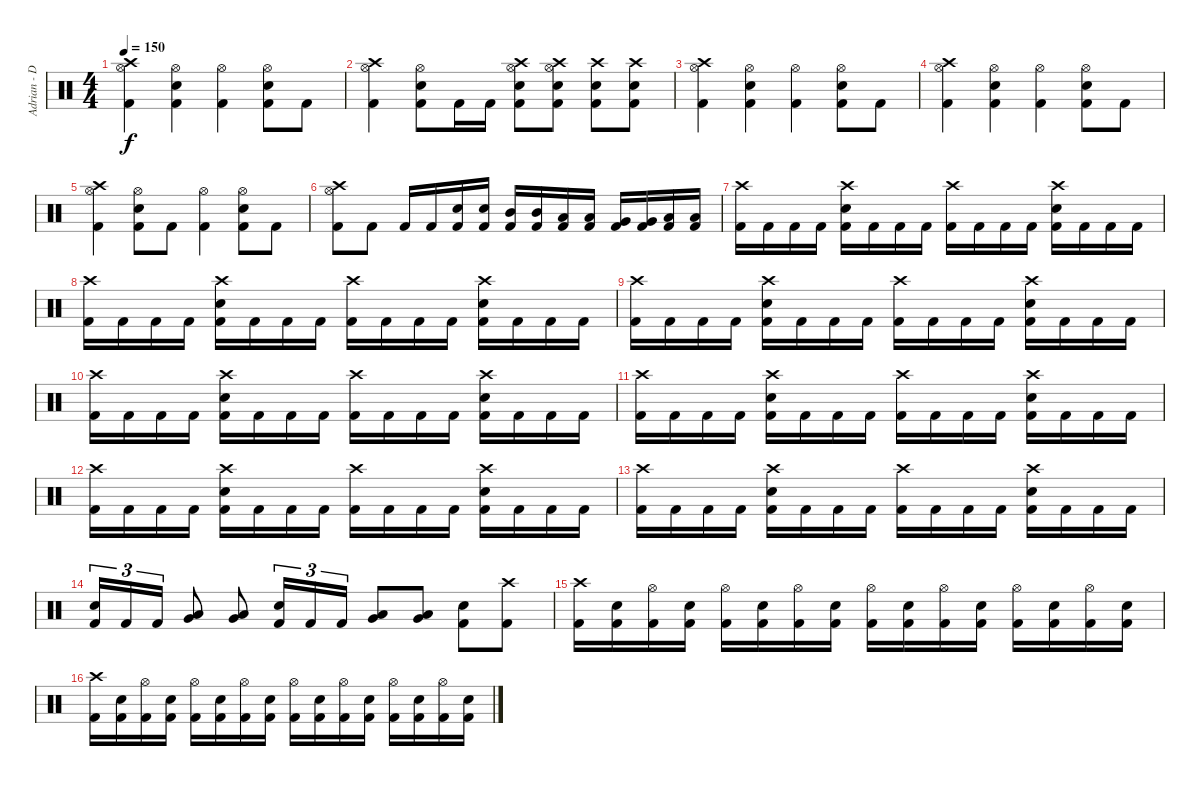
\track ("Adrian - Drums" "Adrian - D") {instrument percussion}
\staff {score}
\articulation defaults
\ts (4 4)
\tempo 150
\clef neutral
\ks c
("Crash high (hit)" "Hi-Hat (open)" "Kick (hit) 2").4{dy f} ("Hi-Hat (open)" "Electric Snare (hit)" "Kick (hit) 2").4 ("Hi-Hat (open)" "Kick (hit) 2").4 ("Hi-Hat (open)" "Electric Snare (hit)" "Kick (hit) 2").8 "Kick (hit) 2".8 |
("Crash high (hit)" "Hi-Hat (open)" "Kick (hit) 2").4 ("Hi-Hat (open)" "Electric Snare (hit)" "Kick (hit) 2").8 "Kick (hit) 2".16 "Kick (hit) 2".16 ("Crash high (hit)" "Hi-Hat (open)" "Electric Snare (hit)" "Kick (hit) 2").8 ("Crash high (hit)" "Hi-Hat (open)" "Electric Snare (hit)" "Kick (hit) 2").8 ("Crash high (hit)" "Electric Snare (hit)" "Kick (hit) 2").8 ("Crash high (hit)" "Electric Snare (hit)" "Kick (hit) 2").8 |
("Crash high (hit)" "Hi-Hat (open)" "Kick (hit) 2").4 ("Hi-Hat (open)" "Electric Snare (hit)" "Kick (hit) 2").4 ("Hi-Hat (open)" "Kick (hit) 2").4 ("Hi-Hat (open)" "Electric Snare (hit)" "Kick (hit) 2").8 "Kick (hit) 2".8 |
("Crash high (hit)" "Hi-Hat (open)" "Kick (hit) 2").4 ("Hi-Hat (open)" "Electric Snare (hit)" "Kick (hit) 2").4 ("Hi-Hat (open)" "Kick (hit) 2").4 ("Hi-Hat (open)" "Electric Snare (hit)" "Kick (hit) 2").8 "Kick (hit) 2".8 |
("Crash high (hit)" "Hi-Hat (open)" "Kick (hit) 2").4 ("Hi-Hat (open)" "Electric Snare (hit)" "Kick (hit) 2").8 "Kick (hit) 2".8 ("Hi-Hat (open)" "Kick (hit) 2").4 ("Hi-Hat (open)" "Electric Snare (hit)" "Kick (hit) 2").8 "Kick (hit) 2".8 |
("Crash high (hit)" "Hi-Hat (open)" "Kick (hit) 2").8 "Kick (hit) 2".8 "Kick (hit) 2".16 "Kick (hit) 2".16 ("Electric Snare (hit)" "Kick (hit) 2").16 ("Electric Snare (hit)" "Kick (hit) 2").16 ("Mid Tom (hit)" "Kick (hit) 2").16 ("Mid Tom (hit)" "Kick (hit) 2").16 ("Low Tom (hit)" "Kick (hit) 2").16 ("Low Tom (hit)" "Kick (hit) 2").16 ("Very Low Tom (hit)" "Kick (hit) 2").16 ("Very Low Tom (hit)" "Kick (hit) 2").16 ("Low Floor Tom (hit)" "Kick (hit) 2").16 ("Low Floor Tom (hit)" "Kick (hit) 2").16 |
("Crash high (hit)" "Kick (hit) 2").16 "Kick (hit) 2".16 "Kick (hit) 2".16 "Kick (hit) 2".16 ("Crash high (hit)" "Electric Snare (hit)" "Kick (hit) 2").16 "Kick (hit) 2".16 "Kick (hit) 2".16 "Kick (hit) 2".16 ("Crash high (hit)" "Kick (hit) 2").16 "Kick (hit) 2".16 "Kick (hit) 2".16 "Kick (hit) 2".16 ("Crash high (hit)" "Electric Snare (hit)" "Kick (hit) 2").16 "Kick (hit) 2".16 "Kick (hit) 2".16 "Kick (hit) 2".16 |
("Crash high (hit)" "Kick (hit) 2").16 "Kick (hit) 2".16 "Kick (hit) 2".16 "Kick (hit) 2".16 ("Crash high (hit)" "Electric Snare (hit)" "Kick (hit) 2").16 "Kick (hit) 2".16 "Kick (hit) 2".16 "Kick (hit) 2".16 ("Crash high (hit)" "Kick (hit) 2").16 "Kick (hit) 2".16 "Kick (hit) 2".16 "Kick (hit) 2".16 ("Crash high (hit)" "Electric Snare (hit)" "Kick (hit) 2").16 "Kick (hit) 2".16 "Kick (hit) 2".16 "Kick (hit) 2".16 |
("Crash high (hit)" "Kick (hit) 2").16 "Kick (hit) 2".16 "Kick (hit) 2".16 "Kick (hit) 2".16 ("Crash high (hit)" "Electric Snare (hit)" "Kick (hit) 2").16 "Kick (hit) 2".16 "Kick (hit) 2".16 "Kick (hit) 2".16 ("Crash high (hit)" "Kick (hit) 2").16 "Kick (hit) 2".16 "Kick (hit) 2".16 "Kick (hit) 2".16 ("Crash high (hit)" "Electric Snare (hit)" "Kick (hit) 2").16 "Kick (hit) 2".16 "Kick (hit) 2".16 "Kick (hit) 2".16 |
("Crash high (hit)" "Kick (hit) 2").16 "Kick (hit) 2".16 "Kick (hit) 2".16 "Kick (hit) 2".16 ("Crash high (hit)" "Electric Snare (hit)" "Kick (hit) 2").16 "Kick (hit) 2".16 "Kick (hit) 2".16 "Kick (hit) 2".16 ("Crash high (hit)" "Kick (hit) 2").16 "Kick (hit) 2".16 "Kick (hit) 2".16 "Kick (hit) 2".16 ("Crash high (hit)" "Electric Snare (hit)" "Kick (hit) 2").16 "Kick (hit) 2".16 "Kick (hit) 2".16 "Kick (hit) 2".16 |
("Crash high (hit)" "Kick (hit) 2").16 "Kick (hit) 2".16 "Kick (hit) 2".16 "Kick (hit) 2".16 ("Crash high (hit)" "Electric Snare (hit)" "Kick (hit) 2").16 "Kick (hit) 2".16 "Kick (hit) 2".16 "Kick (hit) 2".16 ("Crash high (hit)" "Kick (hit) 2").16 "Kick (hit) 2".16 "Kick (hit) 2".16 "Kick (hit) 2".16 ("Crash high (hit)" "Electric Snare (hit)" "Kick (hit) 2").16 "Kick (hit) 2".16 "Kick (hit) 2".16 "Kick (hit) 2".16 |
("Crash high (hit)" "Kick (hit) 2").16 "Kick (hit) 2".16 "Kick (hit) 2".16 "Kick (hit) 2".16 ("Crash high (hit)" "Electric Snare (hit)" "Kick (hit) 2").16 "Kick (hit) 2".16 "Kick (hit) 2".16 "Kick (hit) 2".16 ("Crash high (hit)" "Kick (hit) 2").16 "Kick (hit) 2".16 "Kick (hit) 2".16 "Kick (hit) 2".16 ("Crash high (hit)" "Electric Snare (hit)" "Kick (hit) 2").16 "Kick (hit) 2".16 "Kick (hit) 2".16 "Kick (hit) 2".16 |
("Crash high (hit)" "Kick (hit) 2").16 "Kick (hit) 2".16 "Kick (hit) 2".16 "Kick (hit) 2".16 ("Crash high (hit)" "Electric Snare (hit)" "Kick (hit) 2").16 "Kick (hit) 2".16 "Kick (hit) 2".16 "Kick (hit) 2".16 ("Crash high (hit)" "Kick (hit) 2").16 "Kick (hit) 2".16 "Kick (hit) 2".16 "Kick (hit) 2".16 ("Crash high (hit)" "Electric Snare (hit)" "Kick (hit) 2").16 "Kick (hit) 2".16 "Kick (hit) 2".16 "Kick (hit) 2".16 |
("Electric Snare (hit)" "Kick (hit) 2").16{tu (3 2)} "Kick (hit) 2".16{tu (3 2)} "Kick (hit) 2".16{tu (3 2)} ("Very Low Tom (hit)" "Low Tom (hit)").8 ("Very Low Tom (hit)" "Low Tom (hit)").8 ("Electric Snare (hit)" "Kick (hit) 2").16{tu (3 2)} "Kick (hit) 2".16{tu (3 2)} "Kick (hit) 2".16{tu (3 2)} ("Very Low Tom (hit)" "Low Tom (hit)").8 ("Very Low Tom (hit)" "Low Tom (hit)").8 ("Electric Snare (hit)" "Kick (hit) 2").8 ("Crash high (hit)" "Kick (hit) 2").8 |
("Crash high (hit)" "Kick (hit) 2").16 ("Electric Snare (hit)" "Kick (hit) 2").16 ("Hi-Hat (open)" "Kick (hit) 2").16 ("Electric Snare (hit)" "Kick (hit) 2").16 ("Hi-Hat (open)" "Kick (hit) 2").16 ("Electric Snare (hit)" "Kick (hit) 2").16 ("Hi-Hat (open)" "Kick (hit) 2").16 ("Electric Snare (hit)" "Kick (hit) 2").16 ("Hi-Hat (open)" "Kick (hit) 2").16 ("Electric Snare (hit)" "Kick (hit) 2").16 ("Hi-Hat (open)" "Kick (hit) 2").16 ("Electric Snare (hit)" "Kick (hit) 2").16 ("Hi-Hat (open)" "Kick (hit) 2").16 ("Electric Snare (hit)" "Kick (hit) 2").16 ("Hi-Hat (open)" "Kick (hit) 2").16 ("Electric Snare (hit)" "Kick (hit) 2").16 |
("Crash high (hit)" "Kick (hit) 2").16 ("Electric Snare (hit)" "Kick (hit) 2").16 ("Hi-Hat (open)" "Kick (hit) 2").16 ("Electric Snare (hit)" "Kick (hit) 2").16 ("Hi-Hat (open)" "Kick (hit) 2").16 ("Electric Snare (hit)" "Kick (hit) 2").16 ("Hi-Hat (open)" "Kick (hit) 2").16 ("Electric Snare (hit)" "Kick (hit) 2").16 ("Hi-Hat (open)" "Kick (hit) 2").16 ("Electric Snare (hit)" "Kick (hit) 2").16 ("Hi-Hat (open)" "Kick (hit) 2").16 ("Electric Snare (hit)" "Kick (hit) 2").16 ("Hi-Hat (open)" "Kick (hit) 2").16 ("Electric Snare (hit)" "Kick (hit) 2").16 ("Hi-Hat (open)" "Kick (hit) 2").16 ("Electric Snare (hit)" "Kick (hit) 2").16
